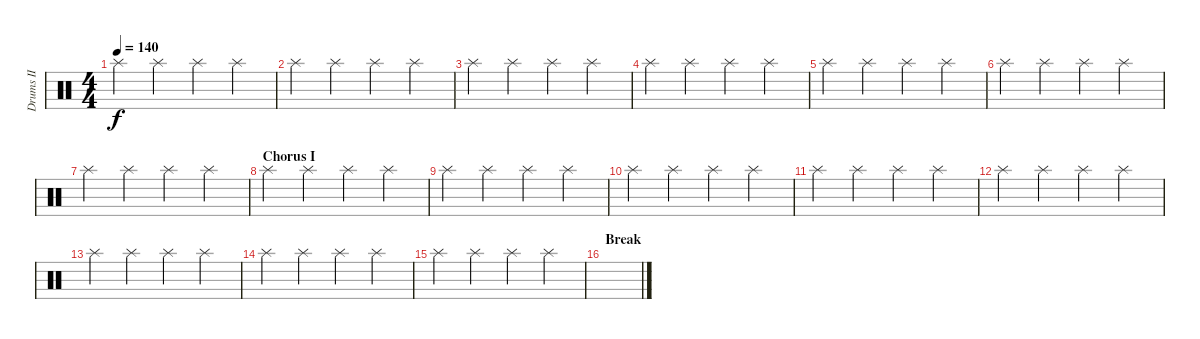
\track ("Drums II" "Drums II") {instrument percussion}
\staff {score}
\articulation defaults
\ts (4 4)
\tempo 140
\clef neutral
\ks c "Splash (hit)".4{dy f} "Splash (hit)".4 "Splash (hit)".4 "Splash (hit)".4
|
"Splash (hit)".4 "Splash (hit)".4 "Splash (hit)".4 "Splash (hit)".4 |
"Splash (hit)".4 "Splash (hit)".4 "Splash (hit)".4 "Splash (hit)".4 |
"Splash (hit)".4 "Splash (hit)".4 "Splash (hit)".4 "Splash (hit)".4 |
"Splash (hit)".4 "Splash (hit)".4 "Splash (hit)".4 "Splash (hit)".4 |
"Splash (hit)".4 "Splash (hit)".4 "Splash (hit)".4 "Splash (hit)".4 |
"Splash (hit)".4 "Splash (hit)".4 "Splash (hit)".4 "Splash (hit)".4 |
\section ("" "Chorus I")
"Splash (hit)".4 "Splash (hit)".4 "Splash (hit)".4 "Splash (hit)".4 |
"Splash (hit)".4 "Splash (hit)".4 "Splash (hit)".4 "Splash (hit)".4 |
"Splash (hit)".4 "Splash (hit)".4 "Splash (hit)".4 "Splash (hit)".4 |
"Splash (hit)".4 "Splash (hit)".4 "Splash (hit)".4 "Splash (hit)".4 |
"Splash (hit)".4 "Splash (hit)".4 "Splash (hit)".4 "Splash (hit)".4 |
"Splash (hit)".4 "Splash (hit)".4 "Splash (hit)".4 "Splash (hit)".4 |
"Splash (hit)".4 "Splash (hit)".4 "Splash (hit)".4 "Splash (hit)".4 |
"Splash (hit)".4 "Splash (hit)".4 "Splash (hit)".4 "Splash (hit)".4 |
\section ("" "Break")
